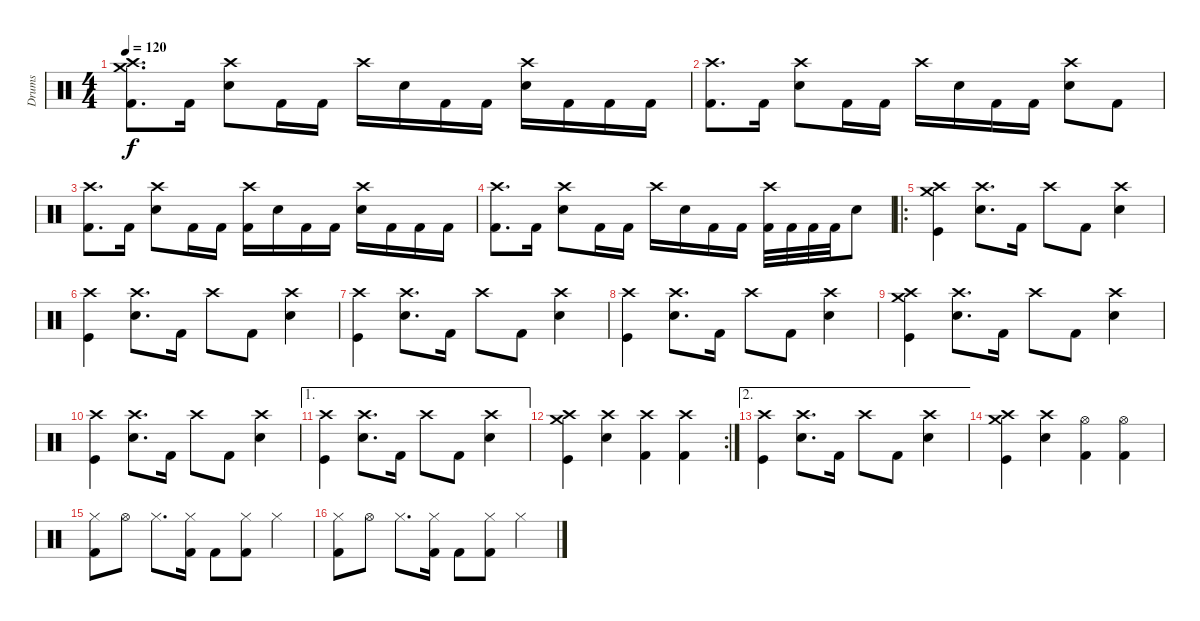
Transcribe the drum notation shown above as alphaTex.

\track ("Drums" "Drums") {instrument percussion}
\staff {score}
\articulation defaults
\ts (4 4)
\tempo 120
\clef neutral
\ks c
("Crash high (hit)" "Crash medium (hit)" "Kick (hit) 2").8{d dy f} "Kick (hit) 2".16 ("Crash high (hit)" "Snare (hit) 2").8 "Kick (hit) 2".16 "Kick (hit) 2".16 "Crash high (hit)".16 "Snare (hit) 2".16 "Kick (hit) 2".16 "Kick (hit) 2".16 ("Crash high (hit)" "Snare (hit) 2").16 "Kick (hit) 2".16 "Kick (hit) 2".16 "Kick (hit) 2".16 |
("Crash high (hit)" "Kick (hit) 2").8{d} "Kick (hit) 2".16 ("Crash high (hit)" "Snare (hit) 2").8 "Kick (hit) 2".16 "Kick (hit) 2".16 "Crash high (hit)".16 "Snare (hit) 2".16 "Kick (hit) 2".16 "Kick (hit) 2".16 ("Crash high (hit)" "Snare (hit) 2").8 "Kick (hit) 2".8 |
("Crash high (hit)" "Kick (hit) 2").8{d} "Kick (hit) 2".16 ("Crash high (hit)" "Snare (hit) 2").8 "Kick (hit) 2".16 "Kick (hit) 2".16 ("Crash high (hit)" "Kick (hit) 2").16 "Snare (hit) 2".16 "Kick (hit) 2".16 "Kick (hit) 2".16 ("Crash high (hit)" "Snare (hit) 2").16 "Kick (hit) 2".16 "Kick (hit) 2".16 "Kick (hit) 2".16 |
("Crash high (hit)" "Kick (hit) 2").8{d} "Kick (hit) 2".16 ("Crash high (hit)" "Snare (hit) 2").8 "Kick (hit) 2".16 "Kick (hit) 2".16 "Crash high (hit)".16 "Snare (hit) 2".16 "Kick (hit) 2".16 "Kick (hit) 2".16 ("Crash high (hit)" "Kick (hit) 2").32 "Kick (hit) 2".32 "Kick (hit) 2".32 "Kick (hit) 2".32 "Snare (hit) 2".8 |
\ro
("Crash high (hit)" "Crash medium (hit)" "Kick (hit)").4 ("Crash high (hit)" "Snare (hit) 2").8{d} "Kick (hit) 2".16 "Crash high (hit)".8 "Kick (hit) 2".8 ("Crash high (hit)" "Snare (hit) 2").4 |
("Crash high (hit)" "Kick (hit)").4 ("Crash high (hit)" "Snare (hit) 2").8{d} "Kick (hit) 2".16 "Crash high (hit)".8 "Kick (hit) 2".8 ("Crash high (hit)" "Snare (hit) 2").4 |
("Crash high (hit)" "Kick (hit)").4 ("Crash high (hit)" "Snare (hit) 2").8{d} "Kick (hit) 2".16 "Crash high (hit)".8 "Kick (hit) 2".8 ("Crash high (hit)" "Snare (hit) 2").4 |
("Crash high (hit)" "Kick (hit)").4 ("Crash high (hit)" "Snare (hit) 2").8{d} "Kick (hit) 2".16 "Crash high (hit)".8 "Kick (hit) 2".8 ("Crash high (hit)" "Snare (hit) 2").4 |
("Crash high (hit)" "Crash medium (hit)" "Kick (hit)").4 ("Crash high (hit)" "Snare (hit) 2").8{d} "Kick (hit) 2".16 "Crash high (hit)".8 "Kick (hit) 2".8 ("Crash high (hit)" "Snare (hit) 2").4 |
("Crash high (hit)" "Kick (hit)").4 ("Crash high (hit)" "Snare (hit) 2").8{d} "Kick (hit) 2".16 "Crash high (hit)".8 "Kick (hit) 2".8 ("Crash high (hit)" "Snare (hit) 2").4 |
\ae 1
("Crash high (hit)" "Kick (hit)").4 ("Crash high (hit)" "Snare (hit) 2").8{d} "Kick (hit) 2".16 "Crash high (hit)".8 "Kick (hit) 2".8 ("Crash high (hit)" "Snare (hit) 2").4 |
\rc 2
("Crash high (hit)" "Crash medium (hit)" "Kick (hit)").4 ("Crash high (hit)" "Snare (hit) 2").4 ("Crash high (hit)" "Kick (hit) 2").4 ("Crash high (hit)" "Kick (hit) 2").4 |
\ae 2
("Crash high (hit)" "Kick (hit)").4 ("Crash high (hit)" "Snare (hit) 2").8{d} "Kick (hit) 2".16 "Crash high (hit)".8 "Kick (hit) 2".8 ("Crash high (hit)" "Snare (hit) 2").4 |
("Crash high (hit)" "Crash medium (hit)" "Kick (hit)").4 ("Crash high (hit)" "Snare (hit) 2").4 ("Hi-Hat (open)" "Kick (hit) 2").4 ("Hi-Hat (open)" "Kick (hit) 2").4 |
("Hi-Hat (closed)" "Kick (hit) 2").8 "Hi-Hat (open)".8 "Hi-Hat (closed)".8{d} ("Hi-Hat (closed)" "Kick (hit) 2").16 "Kick (hit) 2".8 ("Hi-Hat (closed)" "Kick (hit) 2").8 "Hi-Hat (closed)".4 |
("Hi-Hat (closed)" "Kick (hit) 2").8 "Hi-Hat (open)".8 "Hi-Hat (closed)".8{d} ("Hi-Hat (closed)" "Kick (hit) 2").16 "Kick (hit) 2".8 ("Hi-Hat (closed)" "Kick (hit) 2").8 "Hi-Hat (closed)".4
